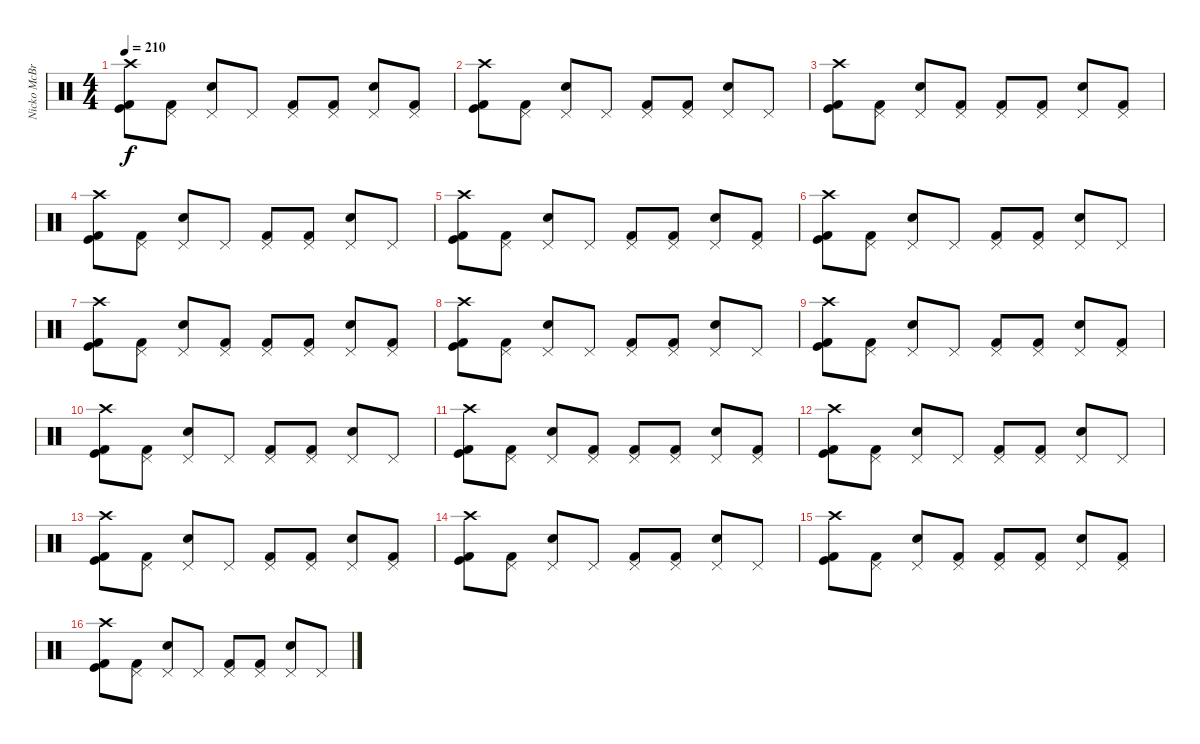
\track ("Nicko McBrain" "Nicko McBr") {instrument percussion}
\staff {score}
\articulation defaults
\ts (4 4)
\tempo 210
\clef neutral
\ks c
("Crash high (hit)" "Kick (hit)" "Kick (hit) 2").8{dy f} ("Pedal Hi-Hat (hit)" "Kick (hit) 2").8 ("Pedal Hi-Hat (hit)" "Snare (hit) 2").8 "Pedal Hi-Hat (hit)".8 ("Pedal Hi-Hat (hit)" "Kick (hit) 2").8 ("Pedal Hi-Hat (hit)" "Kick (hit) 2").8 ("Pedal Hi-Hat (hit)" "Snare (hit) 2").8 ("Pedal Hi-Hat (hit)" "Kick (hit) 2").8 |
("Crash high (hit)" "Kick (hit)" "Kick (hit) 2").8 ("Pedal Hi-Hat (hit)" "Kick (hit) 2").8 ("Pedal Hi-Hat (hit)" "Snare (hit) 2").8 "Pedal Hi-Hat (hit)".8 ("Pedal Hi-Hat (hit)" "Kick (hit) 2").8 ("Pedal Hi-Hat (hit)" "Kick (hit) 2").8 ("Pedal Hi-Hat (hit)" "Snare (hit) 2").8 "Pedal Hi-Hat (hit)".8 |
("Crash high (hit)" "Kick (hit)" "Kick (hit) 2").8 ("Pedal Hi-Hat (hit)" "Kick (hit) 2").8 ("Pedal Hi-Hat (hit)" "Snare (hit) 2").8 ("Pedal Hi-Hat (hit)" "Kick (hit) 2").8 ("Pedal Hi-Hat (hit)" "Kick (hit) 2").8 ("Pedal Hi-Hat (hit)" "Kick (hit) 2").8 ("Pedal Hi-Hat (hit)" "Snare (hit) 2").8 ("Pedal Hi-Hat (hit)" "Kick (hit) 2").8 |
("Crash high (hit)" "Kick (hit)" "Kick (hit) 2").8 ("Pedal Hi-Hat (hit)" "Kick (hit) 2").8 ("Pedal Hi-Hat (hit)" "Snare (hit) 2").8 "Pedal Hi-Hat (hit)".8 ("Pedal Hi-Hat (hit)" "Kick (hit) 2").8 ("Pedal Hi-Hat (hit)" "Kick (hit) 2").8 ("Pedal Hi-Hat (hit)" "Snare (hit) 2").8 "Pedal Hi-Hat (hit)".8 |
("Crash high (hit)" "Kick (hit)" "Kick (hit) 2").8 ("Pedal Hi-Hat (hit)" "Kick (hit) 2").8 ("Pedal Hi-Hat (hit)" "Snare (hit) 2").8 "Pedal Hi-Hat (hit)".8 ("Pedal Hi-Hat (hit)" "Kick (hit) 2").8 ("Pedal Hi-Hat (hit)" "Kick (hit) 2").8 ("Pedal Hi-Hat (hit)" "Snare (hit) 2").8 ("Pedal Hi-Hat (hit)" "Kick (hit) 2").8 |
("Crash high (hit)" "Kick (hit)" "Kick (hit) 2").8 ("Pedal Hi-Hat (hit)" "Kick (hit) 2").8 ("Pedal Hi-Hat (hit)" "Snare (hit) 2").8 "Pedal Hi-Hat (hit)".8 ("Pedal Hi-Hat (hit)" "Kick (hit) 2").8 ("Pedal Hi-Hat (hit)" "Kick (hit) 2").8 ("Pedal Hi-Hat (hit)" "Snare (hit) 2").8 "Pedal Hi-Hat (hit)".8 |
("Crash high (hit)" "Kick (hit)" "Kick (hit) 2").8 ("Pedal Hi-Hat (hit)" "Kick (hit) 2").8 ("Pedal Hi-Hat (hit)" "Snare (hit) 2").8 ("Pedal Hi-Hat (hit)" "Kick (hit) 2").8 ("Pedal Hi-Hat (hit)" "Kick (hit) 2").8 ("Pedal Hi-Hat (hit)" "Kick (hit) 2").8 ("Pedal Hi-Hat (hit)" "Snare (hit) 2").8 ("Pedal Hi-Hat (hit)" "Kick (hit) 2").8 |
("Crash high (hit)" "Kick (hit)" "Kick (hit) 2").8 ("Pedal Hi-Hat (hit)" "Kick (hit) 2").8 ("Pedal Hi-Hat (hit)" "Snare (hit) 2").8 "Pedal Hi-Hat (hit)".8 ("Pedal Hi-Hat (hit)" "Kick (hit) 2").8 ("Pedal Hi-Hat (hit)" "Kick (hit) 2").8 ("Pedal Hi-Hat (hit)" "Snare (hit) 2").8 "Pedal Hi-Hat (hit)".8 |
("Crash high (hit)" "Kick (hit)" "Kick (hit) 2").8 ("Pedal Hi-Hat (hit)" "Kick (hit) 2").8 ("Pedal Hi-Hat (hit)" "Snare (hit) 2").8 "Pedal Hi-Hat (hit)".8 ("Pedal Hi-Hat (hit)" "Kick (hit) 2").8 ("Pedal Hi-Hat (hit)" "Kick (hit) 2").8 ("Pedal Hi-Hat (hit)" "Snare (hit) 2").8 ("Pedal Hi-Hat (hit)" "Kick (hit) 2").8 |
("Crash high (hit)" "Kick (hit)" "Kick (hit) 2").8 ("Pedal Hi-Hat (hit)" "Kick (hit) 2").8 ("Pedal Hi-Hat (hit)" "Snare (hit) 2").8 "Pedal Hi-Hat (hit)".8 ("Pedal Hi-Hat (hit)" "Kick (hit) 2").8 ("Pedal Hi-Hat (hit)" "Kick (hit) 2").8 ("Pedal Hi-Hat (hit)" "Snare (hit) 2").8 "Pedal Hi-Hat (hit)".8 |
("Crash high (hit)" "Kick (hit)" "Kick (hit) 2").8 ("Pedal Hi-Hat (hit)" "Kick (hit) 2").8 ("Pedal Hi-Hat (hit)" "Snare (hit) 2").8 ("Pedal Hi-Hat (hit)" "Kick (hit) 2").8 ("Pedal Hi-Hat (hit)" "Kick (hit) 2").8 ("Pedal Hi-Hat (hit)" "Kick (hit) 2").8 ("Pedal Hi-Hat (hit)" "Snare (hit) 2").8 ("Pedal Hi-Hat (hit)" "Kick (hit) 2").8 |
("Crash high (hit)" "Kick (hit)" "Kick (hit) 2").8 ("Pedal Hi-Hat (hit)" "Kick (hit) 2").8 ("Pedal Hi-Hat (hit)" "Snare (hit) 2").8 "Pedal Hi-Hat (hit)".8 ("Pedal Hi-Hat (hit)" "Kick (hit) 2").8 ("Pedal Hi-Hat (hit)" "Kick (hit) 2").8 ("Pedal Hi-Hat (hit)" "Snare (hit) 2").8 "Pedal Hi-Hat (hit)".8 |
("Crash high (hit)" "Kick (hit)" "Kick (hit) 2").8 ("Pedal Hi-Hat (hit)" "Kick (hit) 2").8 ("Pedal Hi-Hat (hit)" "Snare (hit) 2").8 "Pedal Hi-Hat (hit)".8 ("Pedal Hi-Hat (hit)" "Kick (hit) 2").8 ("Pedal Hi-Hat (hit)" "Kick (hit) 2").8 ("Pedal Hi-Hat (hit)" "Snare (hit) 2").8 ("Pedal Hi-Hat (hit)" "Kick (hit) 2").8 |
("Crash high (hit)" "Kick (hit)" "Kick (hit) 2").8 ("Pedal Hi-Hat (hit)" "Kick (hit) 2").8 ("Pedal Hi-Hat (hit)" "Snare (hit) 2").8 "Pedal Hi-Hat (hit)".8 ("Pedal Hi-Hat (hit)" "Kick (hit) 2").8 ("Pedal Hi-Hat (hit)" "Kick (hit) 2").8 ("Pedal Hi-Hat (hit)" "Snare (hit) 2").8 "Pedal Hi-Hat (hit)".8 |
("Crash high (hit)" "Kick (hit)" "Kick (hit) 2").8 ("Pedal Hi-Hat (hit)" "Kick (hit) 2").8 ("Pedal Hi-Hat (hit)" "Snare (hit) 2").8 ("Pedal Hi-Hat (hit)" "Kick (hit) 2").8 ("Pedal Hi-Hat (hit)" "Kick (hit) 2").8 ("Pedal Hi-Hat (hit)" "Kick (hit) 2").8 ("Pedal Hi-Hat (hit)" "Snare (hit) 2").8 ("Pedal Hi-Hat (hit)" "Kick (hit) 2").8 |
("Crash high (hit)" "Kick (hit)" "Kick (hit) 2").8 ("Pedal Hi-Hat (hit)" "Kick (hit) 2").8 ("Pedal Hi-Hat (hit)" "Snare (hit) 2").8 "Pedal Hi-Hat (hit)".8 ("Pedal Hi-Hat (hit)" "Kick (hit) 2").8 ("Pedal Hi-Hat (hit)" "Kick (hit) 2").8 ("Pedal Hi-Hat (hit)" "Snare (hit) 2").8 "Pedal Hi-Hat (hit)".8
